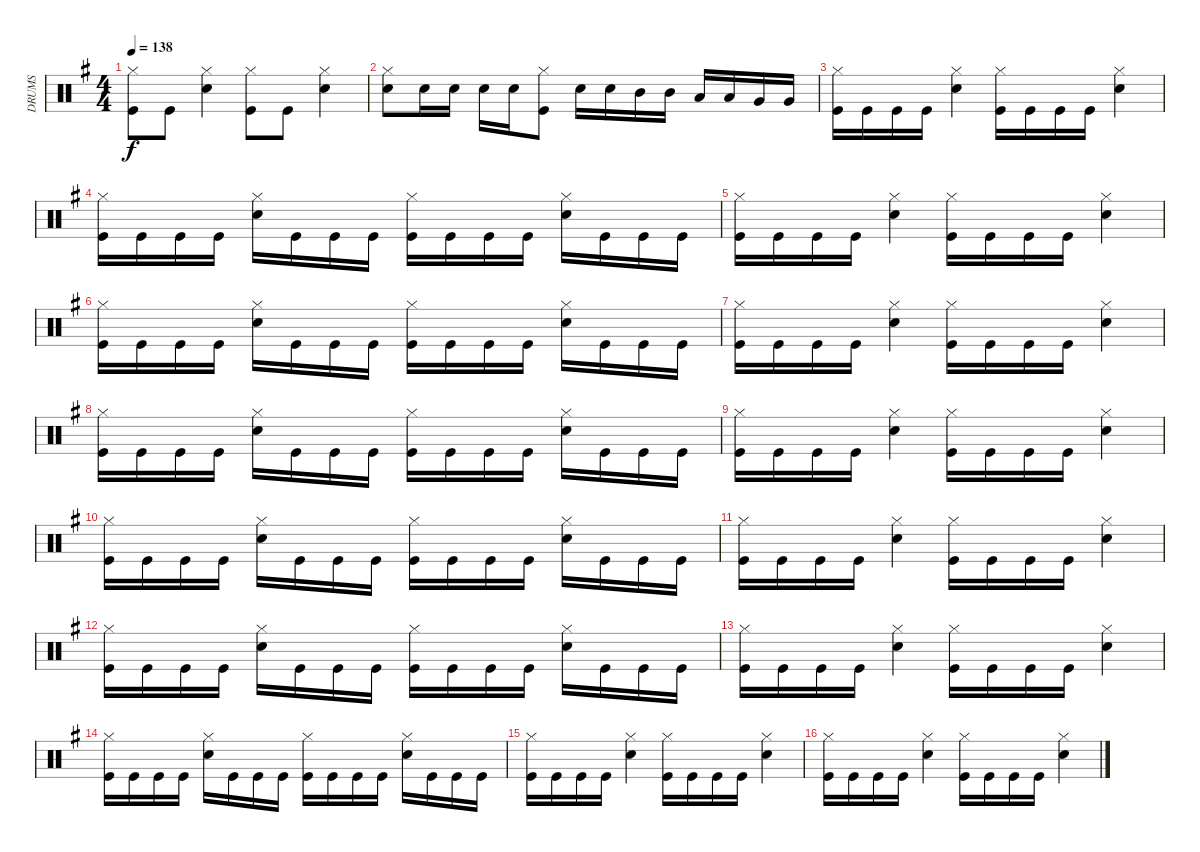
\track ("DRUMS" "DRUMS") {instrument percussion}
\staff {score}
\articulation defaults
\ts (4 4)
\tempo 138
\clef neutral
\ks eminor
("Hi-Hat (closed)" "Kick (hit)").8{dy f} "Kick (hit)".8 ("Hi-Hat (closed)" "Snare (hit) 2").4 ("Hi-Hat (closed)" "Kick (hit)").8 "Kick (hit)".8 ("Hi-Hat (closed)" "Snare (hit) 2").4 |
("Hi-Hat (closed)" "Snare (hit) 2").8 "Snare (hit) 2".16 "Snare (hit) 2".16 "Snare (hit) 2".16 "Snare (hit) 2".16 ("Hi-Hat (closed)" "Kick (hit)").8 "Snare (hit) 2".16 "Snare (hit) 2".16 "Mid Tom (hit)".16 "Mid Tom (hit)".16 "Low Tom (hit)".16 "Low Tom (hit)".16 "Very Low Tom (hit)".16 "Very Low Tom (hit)".16 |
("Hi-Hat (closed)" "Kick (hit)").16 "Kick (hit)".16 "Kick (hit)".16 "Kick (hit)".16 ("Hi-Hat (closed)" "Snare (hit) 2").4 ("Hi-Hat (closed)" "Kick (hit)").16 "Kick (hit)".16 "Kick (hit)".16 "Kick (hit)".16 ("Hi-Hat (closed)" "Snare (hit) 2").4 |
("Hi-Hat (closed)" "Kick (hit)").16 "Kick (hit)".16 "Kick (hit)".16 "Kick (hit)".16 ("Hi-Hat (closed)" "Snare (hit) 2").16 "Kick (hit)".16 "Kick (hit)".16 "Kick (hit)".16 ("Hi-Hat (closed)" "Kick (hit)").16 "Kick (hit)".16 "Kick (hit)".16 "Kick (hit)".16 ("Hi-Hat (closed)" "Snare (hit) 2").16 "Kick (hit)".16 "Kick (hit)".16 "Kick (hit)".16 |
("Hi-Hat (closed)" "Kick (hit)").16 "Kick (hit)".16 "Kick (hit)".16 "Kick (hit)".16 ("Hi-Hat (closed)" "Snare (hit) 2").4 ("Hi-Hat (closed)" "Kick (hit)").16 "Kick (hit)".16 "Kick (hit)".16 "Kick (hit)".16 ("Hi-Hat (closed)" "Snare (hit) 2").4 |
("Hi-Hat (closed)" "Kick (hit)").16 "Kick (hit)".16 "Kick (hit)".16 "Kick (hit)".16 ("Hi-Hat (closed)" "Snare (hit) 2").16 "Kick (hit)".16 "Kick (hit)".16 "Kick (hit)".16 ("Hi-Hat (closed)" "Kick (hit)").16 "Kick (hit)".16 "Kick (hit)".16 "Kick (hit)".16 ("Hi-Hat (closed)" "Snare (hit) 2").16 "Kick (hit)".16 "Kick (hit)".16 "Kick (hit)".16 |
("Hi-Hat (closed)" "Kick (hit)").16 "Kick (hit)".16 "Kick (hit)".16 "Kick (hit)".16 ("Hi-Hat (closed)" "Snare (hit) 2").4 ("Hi-Hat (closed)" "Kick (hit)").16 "Kick (hit)".16 "Kick (hit)".16 "Kick (hit)".16 ("Hi-Hat (closed)" "Snare (hit) 2").4 |
("Hi-Hat (closed)" "Kick (hit)").16 "Kick (hit)".16 "Kick (hit)".16 "Kick (hit)".16 ("Hi-Hat (closed)" "Snare (hit) 2").16 "Kick (hit)".16 "Kick (hit)".16 "Kick (hit)".16 ("Hi-Hat (closed)" "Kick (hit)").16 "Kick (hit)".16 "Kick (hit)".16 "Kick (hit)".16 ("Hi-Hat (closed)" "Snare (hit) 2").16 "Kick (hit)".16 "Kick (hit)".16 "Kick (hit)".16 |
("Hi-Hat (closed)" "Kick (hit)").16 "Kick (hit)".16 "Kick (hit)".16 "Kick (hit)".16 ("Hi-Hat (closed)" "Snare (hit) 2").4 ("Hi-Hat (closed)" "Kick (hit)").16 "Kick (hit)".16 "Kick (hit)".16 "Kick (hit)".16 ("Hi-Hat (closed)" "Snare (hit) 2").4 |
("Hi-Hat (closed)" "Kick (hit)").16 "Kick (hit)".16 "Kick (hit)".16 "Kick (hit)".16 ("Hi-Hat (closed)" "Snare (hit) 2").16 "Kick (hit)".16 "Kick (hit)".16 "Kick (hit)".16 ("Hi-Hat (closed)" "Kick (hit)").16 "Kick (hit)".16 "Kick (hit)".16 "Kick (hit)".16 ("Hi-Hat (closed)" "Snare (hit) 2").16 "Kick (hit)".16 "Kick (hit)".16 "Kick (hit)".16 |
("Hi-Hat (closed)" "Kick (hit)").16 "Kick (hit)".16 "Kick (hit)".16 "Kick (hit)".16 ("Hi-Hat (closed)" "Snare (hit) 2").4 ("Hi-Hat (closed)" "Kick (hit)").16 "Kick (hit)".16 "Kick (hit)".16 "Kick (hit)".16 ("Hi-Hat (closed)" "Snare (hit) 2").4 |
("Hi-Hat (closed)" "Kick (hit)").16 "Kick (hit)".16 "Kick (hit)".16 "Kick (hit)".16 ("Hi-Hat (closed)" "Snare (hit) 2").16 "Kick (hit)".16 "Kick (hit)".16 "Kick (hit)".16 ("Hi-Hat (closed)" "Kick (hit)").16 "Kick (hit)".16 "Kick (hit)".16 "Kick (hit)".16 ("Hi-Hat (closed)" "Snare (hit) 2").16 "Kick (hit)".16 "Kick (hit)".16 "Kick (hit)".16 |
("Hi-Hat (closed)" "Kick (hit)").16 "Kick (hit)".16 "Kick (hit)".16 "Kick (hit)".16 ("Hi-Hat (closed)" "Snare (hit) 2").4 ("Hi-Hat (closed)" "Kick (hit)").16 "Kick (hit)".16 "Kick (hit)".16 "Kick (hit)".16 ("Hi-Hat (closed)" "Snare (hit) 2").4 |
("Hi-Hat (closed)" "Kick (hit)").16 "Kick (hit)".16 "Kick (hit)".16 "Kick (hit)".16 ("Hi-Hat (closed)" "Snare (hit) 2").16 "Kick (hit)".16 "Kick (hit)".16 "Kick (hit)".16 ("Hi-Hat (closed)" "Kick (hit)").16 "Kick (hit)".16 "Kick (hit)".16 "Kick (hit)".16 ("Hi-Hat (closed)" "Snare (hit) 2").16 "Kick (hit)".16 "Kick (hit)".16 "Kick (hit)".16 |
("Hi-Hat (closed)" "Kick (hit)").16 "Kick (hit)".16 "Kick (hit)".16 "Kick (hit)".16 ("Hi-Hat (closed)" "Snare (hit) 2").4 ("Hi-Hat (closed)" "Kick (hit)").16 "Kick (hit)".16 "Kick (hit)".16 "Kick (hit)".16 ("Hi-Hat (closed)" "Snare (hit) 2").4 |
("Hi-Hat (closed)" "Kick (hit)").16 "Kick (hit)".16 "Kick (hit)".16 "Kick (hit)".16 ("Hi-Hat (closed)" "Snare (hit) 2").4 ("Hi-Hat (closed)" "Kick (hit)").16 "Kick (hit)".16 "Kick (hit)".16 "Kick (hit)".16 ("Hi-Hat (closed)" "Snare (hit) 2").4
